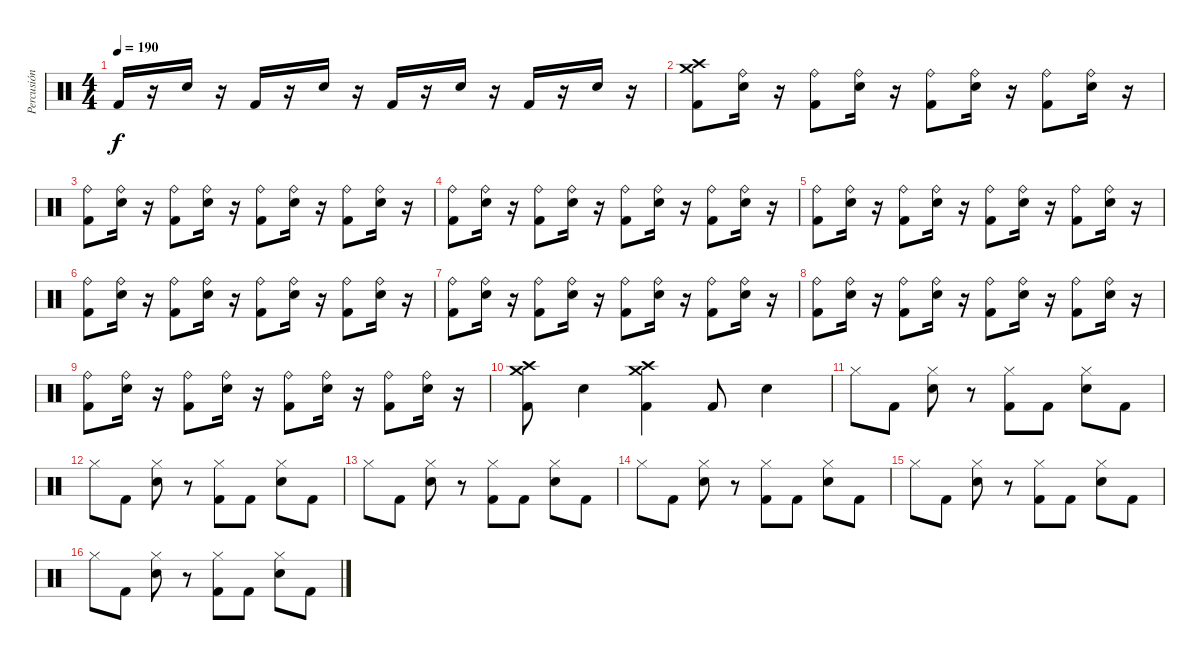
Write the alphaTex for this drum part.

\track ("Percusión" "Percusión") {instrument percussion}
\staff {score}
\articulation defaults
\ts (4 4)
\tempo 190
\clef neutral
\ks c "Kick (hit) 2".16{dy f}
r.16 "Snare (hit) 2".16 r.16 "Kick (hit) 2".16 r.16 "Snare (hit) 2".16 r.16 "Kick (hit) 2".16 r.16 "Snare (hit) 2".16 r.16 "Kick (hit) 2".16 r.16 "Snare (hit) 2".16 r.16 |
("Kick (hit) 2" "Crash medium (hit)" "Crash high (hit)").8 ("Snare (hit) 2" "Ride (bell)").16 r.16 ("Kick (hit) 2" "Ride (bell)").8 ("Snare (hit) 2" "Ride (bell)").16 r.16 ("Kick (hit) 2" "Ride (bell)").8 ("Snare (hit) 2" "Ride (bell)").16 r.16 ("Kick (hit) 2" "Ride (bell)").8 ("Snare (hit) 2" "Ride (bell)").16 r.16 |
("Kick (hit) 2" "Ride (bell)").8 ("Snare (hit) 2" "Ride (bell)").16 r.16 ("Kick (hit) 2" "Ride (bell)").8 ("Snare (hit) 2" "Ride (bell)").16 r.16 ("Kick (hit) 2" "Ride (bell)").8 ("Snare (hit) 2" "Ride (bell)").16 r.16 ("Kick (hit) 2" "Ride (bell)").8 ("Snare (hit) 2" "Ride (bell)").16 r.16 |
("Kick (hit) 2" "Ride (bell)").8 ("Snare (hit) 2" "Ride (bell)").16 r.16 ("Kick (hit) 2" "Ride (bell)").8 ("Snare (hit) 2" "Ride (bell)").16 r.16 ("Kick (hit) 2" "Ride (bell)").8 ("Snare (hit) 2" "Ride (bell)").16 r.16 ("Kick (hit) 2" "Ride (bell)").8 ("Snare (hit) 2" "Ride (bell)").16 r.16 |
("Kick (hit) 2" "Ride (bell)").8 ("Snare (hit) 2" "Ride (bell)").16 r.16 ("Kick (hit) 2" "Ride (bell)").8 ("Snare (hit) 2" "Ride (bell)").16 r.16 ("Kick (hit) 2" "Ride (bell)").8 ("Snare (hit) 2" "Ride (bell)").16 r.16 ("Kick (hit) 2" "Ride (bell)").8 ("Snare (hit) 2" "Ride (bell)").16 r.16 |
("Kick (hit) 2" "Ride (bell)").8 ("Snare (hit) 2" "Ride (bell)").16 r.16 ("Kick (hit) 2" "Ride (bell)").8 ("Snare (hit) 2" "Ride (bell)").16 r.16 ("Kick (hit) 2" "Ride (bell)").8 ("Snare (hit) 2" "Ride (bell)").16 r.16 ("Kick (hit) 2" "Ride (bell)").8 ("Snare (hit) 2" "Ride (bell)").16 r.16 |
("Kick (hit) 2" "Ride (bell)").8 ("Snare (hit) 2" "Ride (bell)").16 r.16 ("Kick (hit) 2" "Ride (bell)").8 ("Snare (hit) 2" "Ride (bell)").16 r.16 ("Kick (hit) 2" "Ride (bell)").8 ("Snare (hit) 2" "Ride (bell)").16 r.16 ("Kick (hit) 2" "Ride (bell)").8 ("Snare (hit) 2" "Ride (bell)").16 r.16 |
("Kick (hit) 2" "Ride (bell)").8 ("Snare (hit) 2" "Ride (bell)").16 r.16 ("Kick (hit) 2" "Ride (bell)").8 ("Snare (hit) 2" "Ride (bell)").16 r.16 ("Kick (hit) 2" "Ride (bell)").8 ("Snare (hit) 2" "Ride (bell)").16 r.16 ("Kick (hit) 2" "Ride (bell)").8 ("Snare (hit) 2" "Ride (bell)").16 r.16 |
("Kick (hit) 2" "Ride (bell)").8 ("Snare (hit) 2" "Ride (bell)").16 r.16 ("Kick (hit) 2" "Ride (bell)").8 ("Snare (hit) 2" "Ride (bell)").16 r.16 ("Kick (hit) 2" "Ride (bell)").8 ("Snare (hit) 2" "Ride (bell)").16 r.16 ("Kick (hit) 2" "Ride (bell)").8 ("Snare (hit) 2" "Ride (bell)").16 r.16 |
("Crash high (hit)" "Crash medium (hit)" "Kick (hit) 2").8 "Snare (hit) 2".4 ("Crash high (hit)" "Crash medium (hit)" "Kick (hit) 2").4 "Kick (hit) 2".8 "Snare (hit) 2".4 |
"Hi-Hat (closed)".8 "Kick (hit) 2".8 ("Snare (hit) 2" "Hi-Hat (closed)").8 r.8 ("Kick (hit) 2" "Hi-Hat (closed)").8 "Kick (hit) 2".8 ("Snare (hit) 2" "Hi-Hat (closed)").8 "Kick (hit) 2".8 |
"Hi-Hat (closed)".8 "Kick (hit) 2".8 ("Snare (hit) 2" "Hi-Hat (closed)").8 r.8 ("Kick (hit) 2" "Hi-Hat (closed)").8 "Kick (hit) 2".8 ("Snare (hit) 2" "Hi-Hat (closed)").8 "Kick (hit) 2".8 |
"Hi-Hat (closed)".8 "Kick (hit) 2".8 ("Snare (hit) 2" "Hi-Hat (closed)").8 r.8 ("Kick (hit) 2" "Hi-Hat (closed)").8 "Kick (hit) 2".8 ("Snare (hit) 2" "Hi-Hat (closed)").8 "Kick (hit) 2".8 |
"Hi-Hat (closed)".8 "Kick (hit) 2".8 ("Snare (hit) 2" "Hi-Hat (closed)").8 r.8 ("Kick (hit) 2" "Hi-Hat (closed)").8 "Kick (hit) 2".8 ("Snare (hit) 2" "Hi-Hat (closed)").8 "Kick (hit) 2".8 |
"Hi-Hat (closed)".8 "Kick (hit) 2".8 ("Snare (hit) 2" "Hi-Hat (closed)").8 r.8 ("Kick (hit) 2" "Hi-Hat (closed)").8 "Kick (hit) 2".8 ("Snare (hit) 2" "Hi-Hat (closed)").8 "Kick (hit) 2".8 |
"Hi-Hat (closed)".8 "Kick (hit) 2".8 ("Snare (hit) 2" "Hi-Hat (closed)").8 r.8 ("Kick (hit) 2" "Hi-Hat (closed)").8 "Kick (hit) 2".8 ("Snare (hit) 2" "Hi-Hat (closed)").8 "Kick (hit) 2".8
